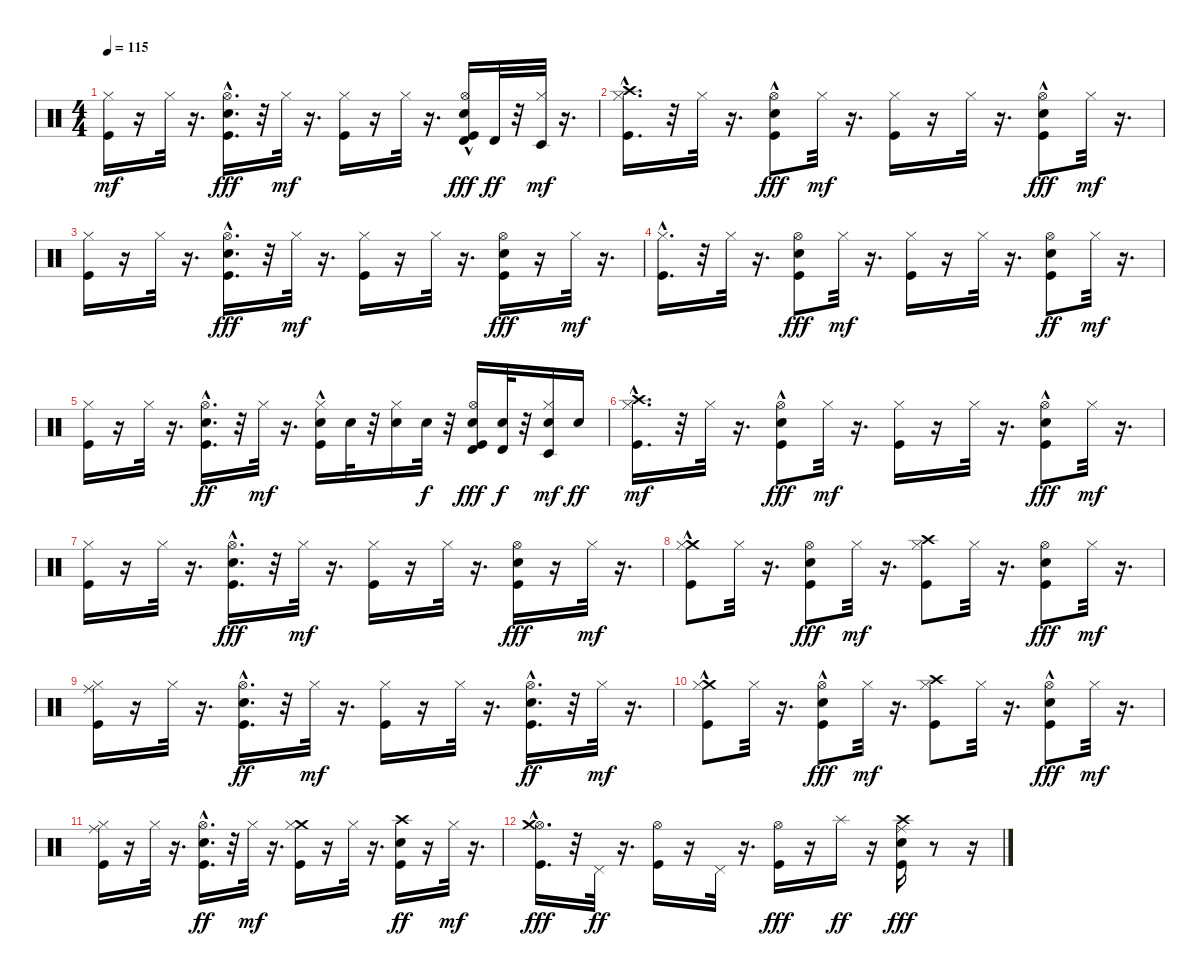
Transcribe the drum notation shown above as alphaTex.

\track "" {instrument percussion}
\staff {score}
\articulation defaults
\ts (4 4)
\tempo 115
\clef neutral
\ks c
("Kick (hit)" "Hi-Hat (closed)").16{dy mf} r.16 "Hi-Hat (closed)".32 r.16{d} ("Hi-Hat (open)"{hac} "Electric Snare (hit)" "Kick (hit)").16{d dy fff} r.32 "Hi-Hat (closed)".32{dy mf} r.16{d} ("Kick (hit)" "Hi-Hat (closed)").16 r.16 "Hi-Hat (closed)".32 r.16{d} ("Hi-Hat (open)" "Timbale high (hit)" "Electric Snare (hit)"{hac} "Kick (hit)").16{dy fff} "Timbale high (hit)".32{dy ff} r.32 ("Timbale low (hit)" "Hi-Hat (closed)").32{dy mf} r.16{d} |
("Crash high (hit)" "Kick (hit)"{hac} "Hi-Hat (closed)").16{d} r.32 "Hi-Hat (closed)".32 r.16{d} ("Hi-Hat (open)" "Electric Snare (hit)"{hac} "Kick (hit)").8{dy fff} "Hi-Hat (closed)".32{dy mf} r.16{d} ("Kick (hit)" "Hi-Hat (closed)").16 r.16 "Hi-Hat (closed)".32 r.16{d} ("Hi-Hat (open)" "Kick (hit)" "Electric Snare (hit)"{hac}).8{dy fff} "Hi-Hat (closed)".32{dy mf} r.16{d} |
("Kick (hit)" "Hi-Hat (closed)").16 r.16 "Hi-Hat (closed)".32 r.16{d} ("Electric Snare (hit)" "Kick (hit)" "Hi-Hat (open)"{hac}).16{d dy fff} r.32 "Hi-Hat (closed)".32{dy mf} r.16{d} ("Kick (hit)" "Hi-Hat (closed)").16 r.16 "Hi-Hat (closed)".32 r.16{d} ("Electric Snare (hit)" "Hi-Hat (open)" "Kick (hit)").16{dy fff} r.16 "Hi-Hat (closed)".32{dy mf} r.16{d} |
("Kick (hit)"{hac} "Hi-Hat (closed)").16{d} r.32 "Hi-Hat (closed)".32 r.16{d} ("Hi-Hat (open)" "Kick (hit)" "Electric Snare (hit)").8{dy fff} "Hi-Hat (closed)".32{dy mf} r.16{d} ("Kick (hit)" "Hi-Hat (closed)").16 r.16 "Hi-Hat (closed)".32 r.16{d} ("Kick (hit)" "Electric Snare (hit)" "Hi-Hat (open)").8{dy ff} "Hi-Hat (closed)".32{dy mf} r.16{d} |
("Kick (hit)" "Hi-Hat (closed)").16 r.16 "Hi-Hat (closed)".32 r.16{d} ("Kick (hit)" "Electric Snare (hit)" "Hi-Hat (open)"{hac}).16{d dy ff} r.32 "Hi-Hat (closed)".32{dy mf} r.16{d} ("Kick (hit)"{hac} "Electric Snare (hit)" "Hi-Hat (closed)").16 "Electric Snare (hit)".32 r.32 ("Electric Snare (hit)" "Hi-Hat (closed)").16 "Electric Snare (hit)".32{dy f} r.32 ("Hi-Hat (open)" "Timbale high (hit)" "Kick (hit)" "Electric Snare (hit)").16{dy fff} ("Timbale high (hit)" "Electric Snare (hit)").32{dy f} r.32 ("Electric Snare (hit)" "Timbale low (hit)" "Hi-Hat (closed)").16{dy mf} "Electric Snare (hit)".16{dy ff} |
("Crash high (hit)" "Kick (hit)"{hac} "Hi-Hat (closed)").16{d dy mf} r.32 "Hi-Hat (closed)".32 r.16{d} ("Hi-Hat (open)" "Electric Snare (hit)"{hac} "Kick (hit)").8{dy fff} "Hi-Hat (closed)".32{dy mf} r.16{d} ("Kick (hit)" "Hi-Hat (closed)").16 r.16 "Hi-Hat (closed)".32 r.16{d} ("Electric Snare (hit)"{hac} "Hi-Hat (open)" "Kick (hit)").8{dy fff} "Hi-Hat (closed)".32{dy mf} r.16{d} |
("Kick (hit)" "Hi-Hat (closed)").16 r.16 "Hi-Hat (closed)".32 r.16{d} ("Electric Snare (hit)" "Kick (hit)" "Hi-Hat (open)"{hac}).16{d dy fff} r.32 "Hi-Hat (closed)".32{dy mf} r.16{d} ("Kick (hit)" "Hi-Hat (closed)").16 r.16 "Hi-Hat (closed)".32 r.16{d} ("Hi-Hat (open)" "Electric Snare (hit)" "Kick (hit)").16{dy fff} r.16 "Hi-Hat (closed)".32{dy mf} r.16{d} |
("Crash medium (hit)" "Kick (hit)"{hac} "Hi-Hat (closed)").8 "Hi-Hat (closed)".32 r.16{d} ("Electric Snare (hit)" "Hi-Hat (open)" "Kick (hit)").8{dy fff} "Hi-Hat (closed)".32{dy mf} r.16{d} ("Crash high (hit)" "Kick (hit)" "Hi-Hat (closed)").8 "Hi-Hat (closed)".32 r.16{d} ("Hi-Hat (open)" "Kick (hit)" "Electric Snare (hit)").8{dy fff} "Hi-Hat (closed)".32{dy mf} r.16{d} |
("Ride (middle)" "Kick (hit)" "Hi-Hat (closed)").16 r.16 "Hi-Hat (closed)".32 r.16{d} ("Hi-Hat (open)"{hac} "Kick (hit)" "Electric Snare (hit)").16{d dy ff} r.32 "Hi-Hat (closed)".32{dy mf} r.16{d} ("Kick (hit)" "Hi-Hat (closed)").16 r.16 "Hi-Hat (closed)".32 r.16{d} ("Electric Snare (hit)"{hac} "Kick (hit)" "Hi-Hat (open)").16{d dy ff} r.32 "Hi-Hat (closed)".32{dy mf} r.16{d} |
("Crash medium (hit)" "Kick (hit)"{hac} "Hi-Hat (closed)").8 "Hi-Hat (closed)".32 r.16{d} ("Electric Snare (hit)"{hac} "Hi-Hat (open)" "Kick (hit)").8{dy fff} "Hi-Hat (closed)".32{dy mf} r.16{d} ("Kick (hit)" "Crash high (hit)" "Hi-Hat (closed)").8 "Hi-Hat (closed)".32 r.16{d} ("Electric Snare (hit)"{hac} "Hi-Hat (open)" "Kick (hit)").8{dy fff} "Hi-Hat (closed)".32{dy mf} r.16{d} |
("Kick (hit)" "Ride (middle)" "Hi-Hat (closed)").16 r.16 "Hi-Hat (closed)".32 r.16{d} ("Kick (hit)" "Hi-Hat (open)"{hac} "Electric Snare (hit)").16{d dy ff} r.32 "Hi-Hat (closed)".32{dy mf} r.16{d} ("Kick (hit)" "Crash medium (hit)" "Hi-Hat (closed)").16 r.16 "Hi-Hat (closed)".32 r.16{d} ("Crash high (hit)" "Kick (hit)" "Electric Snare (hit)").16{dy ff} r.16 "Hi-Hat (closed)".32{dy mf} r.16{d} |
("Hi-Hat (open)"{hac} "Crash medium (hit)" "Kick (hit)").16{d dy fff} r.32 "Pedal Hi-Hat (hit)".32{dy ff} r.16{d} ("Kick (hit)" "Hi-Hat (open)").16 r.16 "Pedal Hi-Hat (hit)".32 r.16{d} ("Hi-Hat (open)" "Kick (hit)").16{dy fff} r.16 "Splash (hit)".16{dy ff} r.16 ("Electric Snare (hit)" "Crash high (hit)" "Ride (middle)" "Kick (hit)").16{dy fff} r.8 r.16
